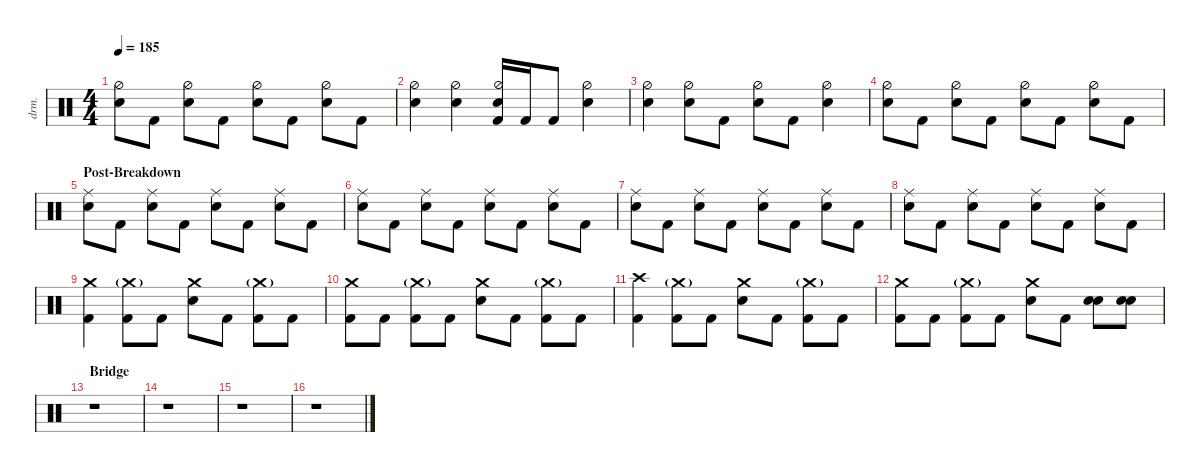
\defaultSystemsLayout 4
\hideDynamics
\bracketExtendMode nobrackets
\track ("Drums - Šimon" "drm.") {instrument percussion}
\staff {score}
\articulation defaults
\ts (4 4)
\tempo 185
\clef neutral
\ks c
("Snare (hit) 2" "Hi-Hat (half)").8{dy ff} "Kick (hit) 2".8 ("Hi-Hat (half)" "Snare (hit) 2").8 "Kick (hit) 2".8 ("Snare (hit) 2" "Hi-Hat (half)").8 "Kick (hit) 2".8 ("Hi-Hat (half)" "Snare (hit) 2").8 "Kick (hit) 2".8 |
("Snare (hit) 2" "Hi-Hat (half)").4 ("Snare (hit) 2" "Hi-Hat (half)").4 ("Snare (hit) 2" "Kick (hit) 2" "Hi-Hat (half)").16 "Kick (hit) 2".16 "Kick (hit) 2".8 ("Hi-Hat (half)" "Snare (hit) 2").4 |
("Snare (hit) 2" "Hi-Hat (half)").4 ("Snare (hit) 2" "Hi-Hat (half)").8 "Kick (hit) 2".8 ("Snare (hit) 2" "Hi-Hat (half)").8 "Kick (hit) 2".8 ("Snare (hit) 2" "Hi-Hat (half)").4 |
("Snare (hit) 2" "Hi-Hat (half)").8 "Kick (hit) 2".8 ("Hi-Hat (half)" "Snare (hit) 2").8 "Kick (hit) 2".8 ("Snare (hit) 2" "Hi-Hat (half)").8 "Kick (hit) 2".8 ("Hi-Hat (half)" "Snare (hit) 2").8 "Kick (hit) 2".8 |
\section ("" "Post-Breakdown")
("Snare (hit) 2" "Ride (middle)").8 "Kick (hit) 2".8 ("Snare (hit) 2" "Ride (middle)").8 "Kick (hit) 2".8 ("Snare (hit) 2" "Ride (middle)").8 "Kick (hit) 2".8 ("Snare (hit) 2" "Ride (middle)").8 "Kick (hit) 2".8 |
("Snare (hit) 2" "Ride (middle)").8 "Kick (hit) 2".8 ("Snare (hit) 2" "Ride (middle)").8 "Kick (hit) 2".8 ("Snare (hit) 2" "Ride (middle)").8 "Kick (hit) 2".8 ("Snare (hit) 2" "Ride (middle)").8 "Kick (hit) 2".8 |
("Snare (hit) 2" "Ride (middle)").8 "Kick (hit) 2".8 ("Snare (hit) 2" "Ride (middle)").8 "Kick (hit) 2".8 ("Snare (hit) 2" "Ride (middle)").8 "Kick (hit) 2".8 ("Snare (hit) 2" "Ride (middle)").8 "Kick (hit) 2".8 |
("Snare (hit) 2" "Ride (middle)").8 "Kick (hit) 2".8 ("Snare (hit) 2" "Ride (middle)").8 "Kick (hit) 2".8 ("Snare (hit) 2" "Ride (middle)").8 "Kick (hit) 2".8 ("Snare (hit) 2" "Ride (middle)").8 "Kick (hit) 2".8 |
("Crash medium (hit)" "Kick (hit) 2").4 ("Crash medium (hit)"{g} "Kick (hit) 2").8 "Kick (hit) 2".8 ("Crash medium (hit)" "Snare (hit) 2").8 "Kick (hit) 2".8 ("Crash medium (hit)"{g} "Kick (hit) 2").8 "Kick (hit) 2".8 |
("Crash medium (hit)" "Kick (hit) 2").8 "Kick (hit) 2".8 ("Crash medium (hit)"{g} "Kick (hit) 2").8 "Kick (hit) 2".8 ("Crash medium (hit)" "Snare (hit) 2").8 "Kick (hit) 2".8 ("Crash medium (hit)"{g} "Kick (hit) 2").8 "Kick (hit) 2".8 |
("Kick (hit) 2" "Crash high (hit)").4 ("Crash medium (hit)"{g} "Kick (hit) 2").8 "Kick (hit) 2".8 ("Crash medium (hit)" "Snare (hit) 2").8 "Kick (hit) 2".8 ("Crash medium (hit)"{g} "Kick (hit) 2").8 "Kick (hit) 2".8 |
("Crash medium (hit)" "Kick (hit) 2").8 "Kick (hit) 2".8 ("Crash medium (hit)"{g} "Kick (hit) 2").8 "Kick (hit) 2".8 ("Crash medium (hit)" "Snare (hit) 2").8 "Kick (hit) 2".8 ("Snare (hit) 2" "Snare (hit) 2").8 ("Snare (hit) 2" "Snare (hit) 2").8 |
\section ("" "Bridge")
r.1 |
r.1 |
r.1 |
r.1
